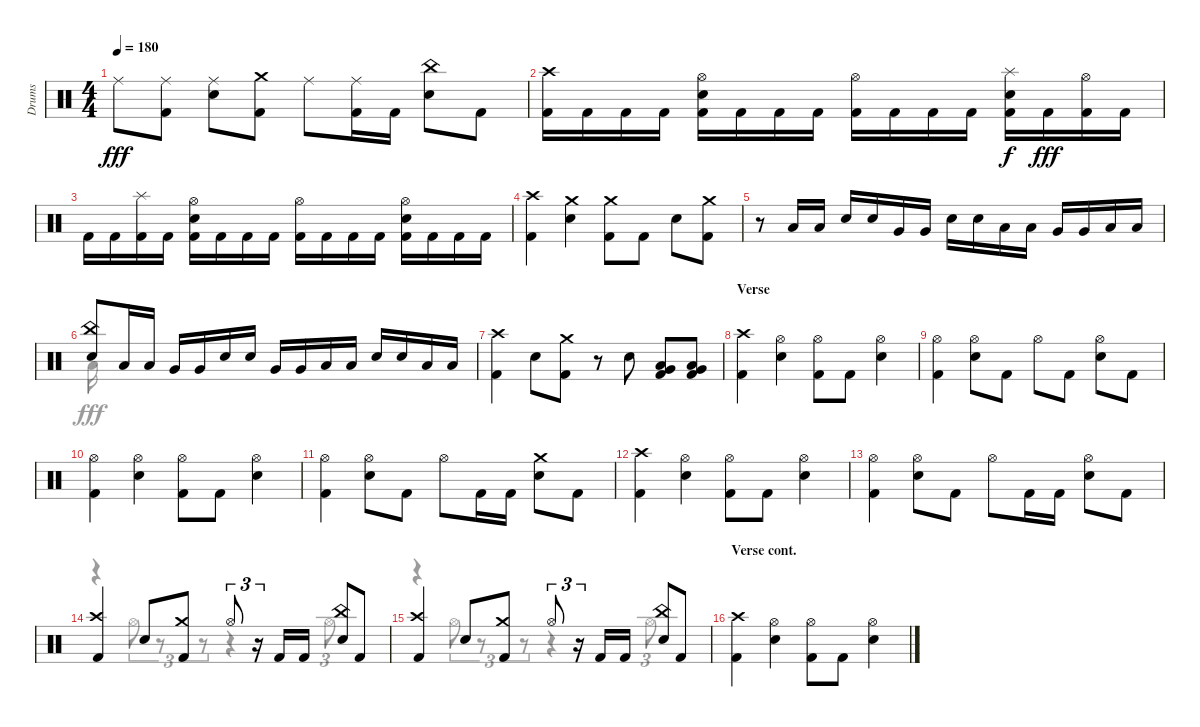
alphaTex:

\track ("Drums" "Drums") {instrument percussion}
\staff {score}
\articulation defaults
\voice
\ts (4 4)
\tempo 180
\clef neutral
\ks aminor "Ride (middle)".8{dy fff}
("Kick (hit) 2" "Ride (middle)").8 ("Snare (hit) 2" "Ride (middle)").8 ("Crash medium (hit)" "Kick (hit) 2").8 "Ride (middle)".8 ("Kick (hit) 2" "Ride (middle)").16 "Kick (hit) 2".16 ("Snare (hit) 2" "China (hit)").8 "Kick (hit) 2".8 |
("Kick (hit) 2" "Crash high (hit)").16 "Kick (hit) 2".16 "Kick (hit) 2".16 "Kick (hit) 2".16 ("Hi-Hat (open)" "Snare (hit) 2" "Kick (hit) 2").16 "Kick (hit) 2".16 "Kick (hit) 2".16 "Kick (hit) 2".16 ("Kick (hit) 2" "Hi-Hat (open)").16 "Kick (hit) 2".16 "Kick (hit) 2".16 "Kick (hit) 2".16 ("Splash (hit)" "Kick (hit) 2" "Snare (hit) 2").16{dy f} "Kick (hit) 2".16{dy fff} ("Kick (hit) 2" "Hi-Hat (open)").16 "Kick (hit) 2".16 |
"Kick (hit) 2".16 "Kick (hit) 2".16 ("Kick (hit) 2" "Splash (hit)").16 "Kick (hit) 2".16 ("Kick (hit) 2" "Snare (hit) 2" "Hi-Hat (open)").16 "Kick (hit) 2".16 "Kick (hit) 2".16 "Kick (hit) 2".16 ("Kick (hit) 2" "Hi-Hat (open)").16 "Kick (hit) 2".16 "Kick (hit) 2".16 "Kick (hit) 2".16 ("Snare (hit) 2" "Hi-Hat (open)" "Kick (hit) 2").16 "Kick (hit) 2".16 "Kick (hit) 2".16 "Kick (hit) 2".16 |
("Kick (hit) 2" "Crash high (hit)").4 ("Snare (hit) 2" "Crash medium (hit)").4 ("Kick (hit) 2" "Crash medium (hit)").8 "Kick (hit) 2".8 "Snare (hit) 2".8 ("Kick (hit) 2" "Crash medium (hit)").8 |
r.8 "Low Floor Tom (hit)".16 "Low Floor Tom (hit)".16 "Snare (hit) 2".16 "Snare (hit) 2".16 "Very Low Tom (hit)".16 "Very Low Tom (hit)".16 "Snare (hit) 2".16 "Snare (hit) 2".16 "Low Tom (hit)".16 "Low Tom (hit)".16 "Very Low Tom (hit)".16 "Very Low Tom (hit)".16 "Low Floor Tom (hit)".16 "Low Floor Tom (hit)".16 |
("Snare (hit) 2" "China (hit)").8 "Low Tom (hit)".16 "Low Tom (hit)".16 "Very Low Tom (hit)".16 "Very Low Tom (hit)".16 "Snare (hit) 2".16 "Snare (hit) 2".16 "Very Low Tom (hit)".16 "Very Low Tom (hit)".16 "Low Floor Tom (hit)".16 "Low Floor Tom (hit)".16 "Snare (hit) 2".16 "Snare (hit) 2".16 "Low Floor Tom (hit)".16 "Low Floor Tom (hit)".16 |
("Kick (hit) 2" "Crash high (hit)").4 "Snare (hit) 2".8 ("Crash medium (hit)" "Kick (hit) 2").8 r.8 "Snare (hit) 2".8 ("Low Floor Tom (hit)" "Very Low Tom (hit)" "Kick (hit) 2").8 ("Low Floor Tom (hit)" "Very Low Tom (hit)" "Kick (hit) 2").8 |
\section ("" "Verse")
("Kick (hit) 2" "Crash high (hit)").4 ("Snare (hit) 2" "Hi-Hat (open)").4 ("Kick (hit) 2" "Hi-Hat (open)").8 "Kick (hit) 2".8 ("Snare (hit) 2" "Hi-Hat (open)").4 |
("Kick (hit) 2" "Hi-Hat (open)").4 ("Snare (hit) 2" "Hi-Hat (open)").8 "Kick (hit) 2".8 "Hi-Hat (open)".8 "Kick (hit) 2".8 ("Snare (hit) 2" "Hi-Hat (open)").8 "Kick (hit) 2".8 |
("Kick (hit) 2" "Hi-Hat (open)").4 ("Hi-Hat (open)" "Snare (hit) 2").4 ("Hi-Hat (open)" "Kick (hit) 2").8 "Kick (hit) 2".8 ("Hi-Hat (open)" "Snare (hit) 2").4 |
("Hi-Hat (open)" "Kick (hit) 2").4 ("Snare (hit) 2" "Hi-Hat (open)").8 "Kick (hit) 2".8 "Hi-Hat (open)".8 "Kick (hit) 2".16 "Kick (hit) 2".16 ("Crash medium (hit)" "Snare (hit) 2").8 "Kick (hit) 2".8 |
("Kick (hit) 2" "Crash high (hit)").4 ("Hi-Hat (open)" "Snare (hit) 2").4 ("Kick (hit) 2" "Hi-Hat (open)").8 "Kick (hit) 2".8 ("Snare (hit) 2" "Hi-Hat (open)").4 |
("Hi-Hat (open)" "Kick (hit) 2").4 ("Hi-Hat (open)" "Snare (hit) 2").8 "Kick (hit) 2".8 "Hi-Hat (open)".8 "Kick (hit) 2".16 "Kick (hit) 2".16 ("Snare (hit) 2" "Hi-Hat (open)").8 "Kick (hit) 2".8 |
("Kick (hit) 2" "Crash high (hit)").4 "Snare (hit) 2".8 ("Crash medium (hit)" "Kick (hit) 2").8 "Hi-Hat (open)".8{tu (3 2)} r.16{tu (3 2)} "Kick (hit) 2".16 "Kick (hit) 2".16 ("China (hit)" "Snare (hit) 2").8 "Kick (hit) 2".8 |
("Crash high (hit)" "Kick (hit) 2").4 "Snare (hit) 2".8 ("Kick (hit) 2" "Crash medium (hit)").8 "Hi-Hat (open)".8{tu (3 2)} r.16{tu (3 2)} "Kick (hit) 2".16 "Kick (hit) 2".16 ("China (hit)" "Snare (hit) 2").8 "Kick (hit) 2".8 |
\section ("" "Verse cont.")
("Kick (hit) 2" "Crash high (hit)").4 ("Snare (hit) 2" "Hi-Hat (open)").4 ("Kick (hit) 2" "Hi-Hat (open)").8 "Kick (hit) 2".8 ("Hi-Hat (open)" "Snare (hit) 2").4
\voice
\clef neutral
\ottava regular
\simile none
\ks aminor
|
|
|
|
|
"Low Floor Tom (hit)".16 |
|
|
|
|
|
|
|
r.4 "Hi-Hat (open)".8{tu (3 2)} r.8{tu (3 2)} r.8{tu (3 2)} r.4 "Hi-Hat (open)".8{tu (3 2)} |
r.4 "Hi-Hat (open)".8{tu (3 2)} r.8{tu (3 2)} r.8{tu (3 2)} r.4 "Hi-Hat (open)".8{tu (3 2)} |
